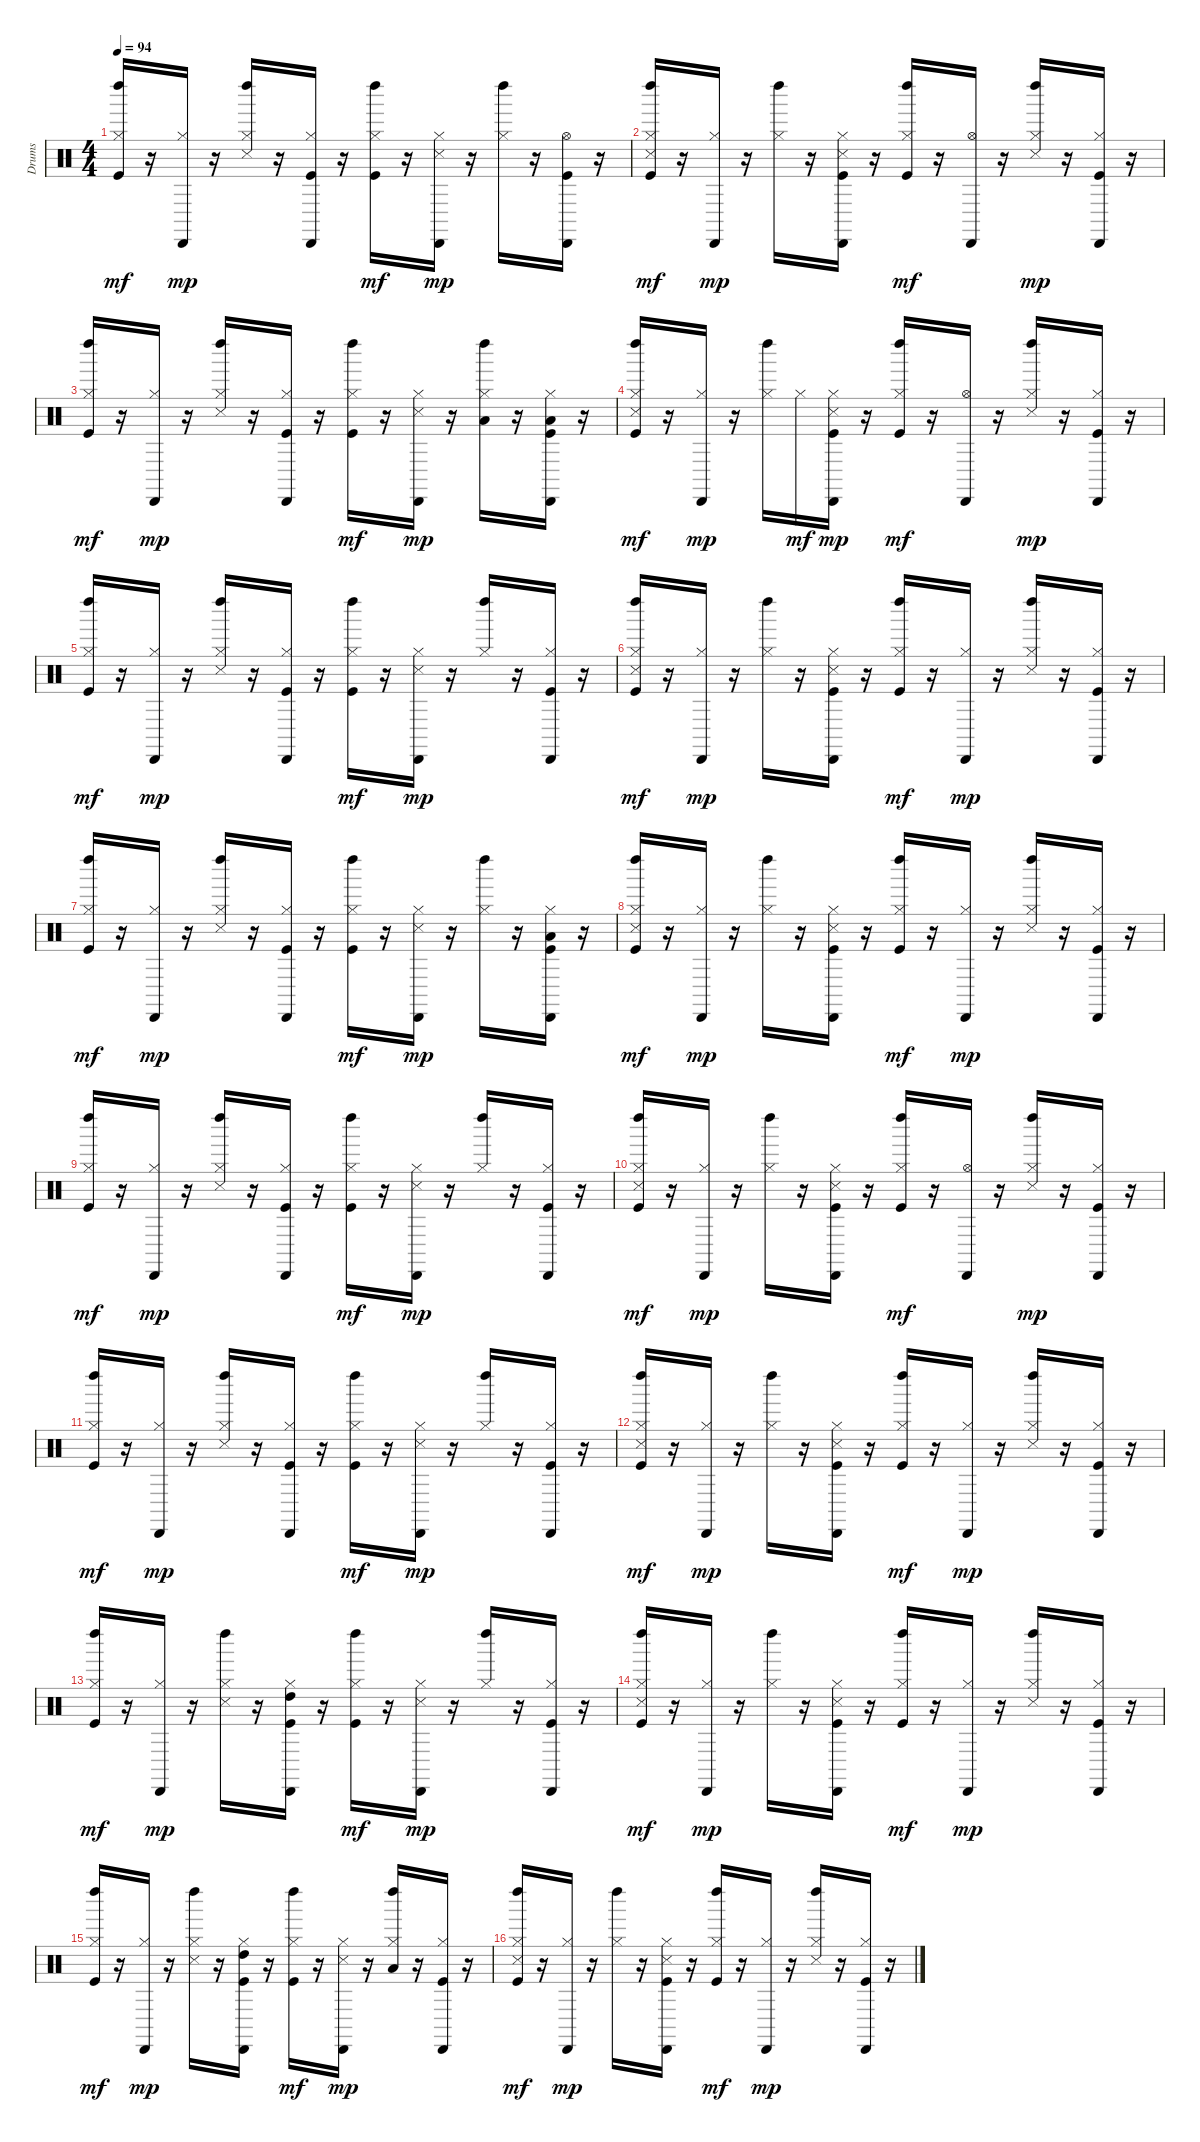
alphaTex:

\track ("Drums" "Drums") {instrument percussion}
\staff {score}
\articulation defaults
\ts (4 4)
\tempo 94
\clef neutral
\ks c
("Left Maraca (hit)" "Hi-Hat (closed)" "Kick (hit)").16{dy mf} r.16 ("Cabasa (hit)" "Hi-Hat (closed)").16{dy mp} r.16 ("Left Maraca (hit)" "Hi-Hat (closed)" "Snare (side stick) 3").16 r.16 ("Cabasa (hit)" "Hi-Hat (closed)" "Kick (hit)").16 r.16 ("Left Maraca (hit)" "Hi-Hat (closed)" "Kick (hit)").16{dy mf} r.16 ("Cabasa (hit)" "Hi-Hat (closed)" "Snare (side stick) 3").16{dy mp} r.16 ("Left Maraca (hit)" "Hi-Hat (closed)").16 r.16 ("Cabasa (hit)" "Hi-Hat (open)" "Kick (hit)").16 r.16 |
("Left Maraca (hit)" "Hi-Hat (closed)" "Snare (side stick) 3" "Kick (hit)").16{dy mf} r.16 ("Cabasa (hit)" "Hi-Hat (closed)").16{dy mp} r.16 ("Left Maraca (hit)" "Hi-Hat (closed)").16 r.16 ("Cabasa (hit)" "Hi-Hat (closed)" "Snare (side stick) 3" "Kick (hit)").16 r.16 ("Left Maraca (hit)" "Hi-Hat (closed)" "Kick (hit)").16{dy mf} r.16 ("Cabasa (hit)" "Hi-Hat (open)").16 r.16 ("Left Maraca (hit)" "Hi-Hat (closed)" "Snare (side stick) 3").16{dy mp} r.16 ("Cabasa (hit)" "Hi-Hat (closed)" "Kick (hit)").16 r.16 |
("Left Maraca (hit)" "Hi-Hat (closed)" "Kick (hit)").16{dy mf} r.16 ("Cabasa (hit)" "Hi-Hat (closed)").16{dy mp} r.16 ("Left Maraca (hit)" "Hi-Hat (closed)" "Snare (side stick) 3").16 r.16 ("Cabasa (hit)" "Hi-Hat (closed)" "Kick (hit)").16 r.16 ("Left Maraca (hit)" "Hi-Hat (closed)" "Kick (hit)").16{dy mf} r.16 ("Cabasa (hit)" "Hi-Hat (closed)" "Snare (side stick) 3").16{dy mp} r.16 ("Left Maraca (hit)" "Low Tom (hit)" "Hi-Hat (closed)").16 r.16 ("Cabasa (hit)" "Low Tom (hit)" "Hi-Hat (closed)" "Kick (hit)").16 r.16 |
("Left Maraca (hit)" "Hi-Hat (closed)" "Snare (side stick) 3" "Kick (hit)").16{dy mf} r.16 ("Cabasa (hit)" "Hi-Hat (closed)").16{dy mp} r.16 ("Left Maraca (hit)" "Hi-Hat (closed)").16 "Hi-Hat (closed)".16{dy mf} ("Cabasa (hit)" "Hi-Hat (closed)" "Snare (side stick) 3" "Kick (hit)").16{dy mp} r.16 ("Left Maraca (hit)" "Hi-Hat (closed)" "Kick (hit)").16{dy mf} r.16 ("Cabasa (hit)" "Hi-Hat (open)").16 r.16 ("Left Maraca (hit)" "Hi-Hat (closed)" "Snare (side stick) 3").16{dy mp} r.16 ("Cabasa (hit)" "Hi-Hat (closed)" "Kick (hit)").16 r.16 |
("Left Maraca (hit)" "Hi-Hat (closed)" "Kick (hit)").16{dy mf} r.16 ("Cabasa (hit)" "Hi-Hat (closed)").16{dy mp} r.16 ("Left Maraca (hit)" "Hi-Hat (closed)" "Snare (side stick) 3").16 r.16 ("Cabasa (hit)" "Hi-Hat (closed)" "Kick (hit)").16 r.16 ("Left Maraca (hit)" "Hi-Hat (closed)" "Kick (hit)").16{dy mf} r.16 ("Cabasa (hit)" "Hi-Hat (closed)" "Snare (side stick) 3").16{dy mp} r.16 ("Left Maraca (hit)" "Hi-Hat (closed)").16 r.16 ("Cabasa (hit)" "Hi-Hat (closed)" "Kick (hit)").16 r.16 |
("Left Maraca (hit)" "Hi-Hat (closed)" "Snare (side stick) 3" "Kick (hit)").16{dy mf} r.16 ("Cabasa (hit)" "Hi-Hat (closed)").16{dy mp} r.16 ("Left Maraca (hit)" "Hi-Hat (closed)").16 r.16 ("Cabasa (hit)" "Hi-Hat (closed)" "Snare (side stick) 3" "Kick (hit)").16 r.16 ("Left Maraca (hit)" "Hi-Hat (closed)" "Kick (hit)").16{dy mf} r.16 ("Cabasa (hit)" "Hi-Hat (closed)").16{dy mp} r.16 ("Left Maraca (hit)" "Hi-Hat (closed)" "Snare (side stick) 3").16 r.16 ("Cabasa (hit)" "Hi-Hat (closed)" "Kick (hit)").16 r.16 |
("Left Maraca (hit)" "Hi-Hat (closed)" "Kick (hit)").16{dy mf} r.16 ("Cabasa (hit)" "Hi-Hat (closed)").16{dy mp} r.16 ("Left Maraca (hit)" "Hi-Hat (closed)" "Snare (side stick) 3").16 r.16 ("Cabasa (hit)" "Hi-Hat (closed)" "Kick (hit)").16 r.16 ("Left Maraca (hit)" "Hi-Hat (closed)" "Kick (hit)").16{dy mf} r.16 ("Cabasa (hit)" "Hi-Hat (closed)" "Snare (side stick) 3").16{dy mp} r.16 ("Left Maraca (hit)" "Hi-Hat (closed)").16 r.16 ("Cabasa (hit)" "Low Tom (hit)" "Hi-Hat (closed)" "Kick (hit)").16 r.16 |
("Left Maraca (hit)" "Hi-Hat (closed)" "Snare (side stick) 3" "Kick (hit)").16{dy mf} r.16 ("Cabasa (hit)" "Hi-Hat (closed)").16{dy mp} r.16 ("Left Maraca (hit)" "Hi-Hat (closed)").16 r.16 ("Cabasa (hit)" "Hi-Hat (closed)" "Snare (side stick) 3" "Kick (hit)").16 r.16 ("Left Maraca (hit)" "Hi-Hat (closed)" "Kick (hit)").16{dy mf} r.16 ("Cabasa (hit)" "Hi-Hat (closed)").16{dy mp} r.16 ("Left Maraca (hit)" "Hi-Hat (closed)" "Snare (side stick) 3").16 r.16 ("Cabasa (hit)" "Hi-Hat (closed)" "Kick (hit)").16 r.16 |
("Left Maraca (hit)" "Hi-Hat (closed)" "Kick (hit)").16{dy mf} r.16 ("Cabasa (hit)" "Hi-Hat (closed)").16{dy mp} r.16 ("Left Maraca (hit)" "Hi-Hat (closed)" "Snare (side stick) 3").16 r.16 ("Cabasa (hit)" "Hi-Hat (closed)" "Kick (hit)").16 r.16 ("Left Maraca (hit)" "Hi-Hat (closed)" "Kick (hit)").16{dy mf} r.16 ("Cabasa (hit)" "Hi-Hat (closed)" "Snare (side stick) 3").16{dy mp} r.16 ("Left Maraca (hit)" "Hi-Hat (closed)").16 r.16 ("Cabasa (hit)" "Hi-Hat (closed)" "Kick (hit)").16 r.16 |
("Left Maraca (hit)" "Hi-Hat (closed)" "Snare (side stick) 3" "Kick (hit)").16{dy mf} r.16 ("Cabasa (hit)" "Hi-Hat (closed)").16{dy mp} r.16 ("Left Maraca (hit)" "Hi-Hat (closed)").16 r.16 ("Cabasa (hit)" "Hi-Hat (closed)" "Snare (side stick) 3" "Kick (hit)").16 r.16 ("Left Maraca (hit)" "Hi-Hat (closed)" "Kick (hit)").16{dy mf} r.16 ("Cabasa (hit)" "Hi-Hat (open)").16 r.16 ("Left Maraca (hit)" "Hi-Hat (closed)" "Snare (side stick) 3").16{dy mp} r.16 ("Cabasa (hit)" "Hi-Hat (closed)" "Kick (hit)").16 r.16 |
("Left Maraca (hit)" "Hi-Hat (closed)" "Kick (hit)").16{dy mf} r.16 ("Cabasa (hit)" "Hi-Hat (closed)").16{dy mp} r.16 ("Left Maraca (hit)" "Hi-Hat (closed)" "Snare (side stick) 3").16 r.16 ("Cabasa (hit)" "Hi-Hat (closed)" "Kick (hit)").16 r.16 ("Left Maraca (hit)" "Hi-Hat (closed)" "Kick (hit)").16{dy mf} r.16 ("Cabasa (hit)" "Hi-Hat (closed)" "Snare (side stick) 3").16{dy mp} r.16 ("Left Maraca (hit)" "Hi-Hat (closed)").16 r.16 ("Cabasa (hit)" "Hi-Hat (closed)" "Kick (hit)").16 r.16 |
("Left Maraca (hit)" "Hi-Hat (closed)" "Snare (side stick) 3" "Kick (hit)").16{dy mf} r.16 ("Cabasa (hit)" "Hi-Hat (closed)").16{dy mp} r.16 ("Left Maraca (hit)" "Hi-Hat (closed)").16 r.16 ("Cabasa (hit)" "Hi-Hat (closed)" "Snare (side stick) 3" "Kick (hit)").16 r.16 ("Left Maraca (hit)" "Hi-Hat (closed)" "Kick (hit)").16{dy mf} r.16 ("Cabasa (hit)" "Hi-Hat (closed)").16{dy mp} r.16 ("Left Maraca (hit)" "Hi-Hat (closed)" "Snare (side stick) 3").16 r.16 ("Cabasa (hit)" "Hi-Hat (closed)" "Kick (hit)").16 r.16 |
("Left Maraca (hit)" "Hi-Hat (closed)" "Kick (hit)").16{dy mf} r.16 ("Cabasa (hit)" "Hi-Hat (closed)").16{dy mp} r.16 ("Left Maraca (hit)" "Hi-Hat (closed)" "Snare (side stick) 3").16 r.16 ("Cabasa (hit)" "High Tom (hit)" "Hi-Hat (closed)" "Kick (hit)").16 r.16 ("Left Maraca (hit)" "Hi-Hat (closed)" "Kick (hit)").16{dy mf} r.16 ("Cabasa (hit)" "Hi-Hat (closed)" "Snare (side stick) 3").16{dy mp} r.16 ("Left Maraca (hit)" "Hi-Hat (closed)").16 r.16 ("Cabasa (hit)" "Hi-Hat (closed)" "Kick (hit)").16 r.16 |
("Left Maraca (hit)" "Hi-Hat (closed)" "Snare (side stick) 3" "Kick (hit)").16{dy mf} r.16 ("Cabasa (hit)" "Hi-Hat (closed)").16{dy mp} r.16 ("Left Maraca (hit)" "Hi-Hat (closed)").16 r.16 ("Cabasa (hit)" "Hi-Hat (closed)" "Snare (side stick) 3" "Kick (hit)").16 r.16 ("Left Maraca (hit)" "Hi-Hat (closed)" "Kick (hit)").16{dy mf} r.16 ("Cabasa (hit)" "Hi-Hat (closed)").16{dy mp} r.16 ("Left Maraca (hit)" "Hi-Hat (closed)" "Snare (side stick) 3").16 r.16 ("Cabasa (hit)" "Hi-Hat (closed)" "Kick (hit)").16 r.16 |
("Left Maraca (hit)" "Hi-Hat (closed)" "Kick (hit)").16{dy mf} r.16 ("Cabasa (hit)" "Hi-Hat (closed)").16{dy mp} r.16 ("Left Maraca (hit)" "Hi-Hat (closed)" "Snare (side stick) 3").16 r.16 ("Cabasa (hit)" "High Tom (hit)" "Hi-Hat (closed)" "Kick (hit)").16 r.16 ("Left Maraca (hit)" "Hi-Hat (closed)" "Kick (hit)").16{dy mf} r.16 ("Cabasa (hit)" "Hi-Hat (closed)" "Snare (side stick) 3").16{dy mp} r.16 ("Left Maraca (hit)" "Low Tom (hit)" "Hi-Hat (closed)").16 r.16 ("Cabasa (hit)" "Hi-Hat (closed)" "Kick (hit)").16 r.16 |
("Left Maraca (hit)" "Hi-Hat (closed)" "Snare (side stick) 3" "Kick (hit)").16{dy mf} r.16 ("Cabasa (hit)" "Hi-Hat (closed)").16{dy mp} r.16 ("Left Maraca (hit)" "Hi-Hat (closed)").16 r.16 ("Cabasa (hit)" "Hi-Hat (closed)" "Snare (side stick) 3" "Kick (hit)").16 r.16 ("Left Maraca (hit)" "Hi-Hat (closed)" "Kick (hit)").16{dy mf} r.16 ("Cabasa (hit)" "Hi-Hat (closed)").16{dy mp} r.16 ("Left Maraca (hit)" "Hi-Hat (closed)" "Snare (side stick) 3").16 r.16 ("Cabasa (hit)" "Hi-Hat (closed)" "Kick (hit)").16 r.16
